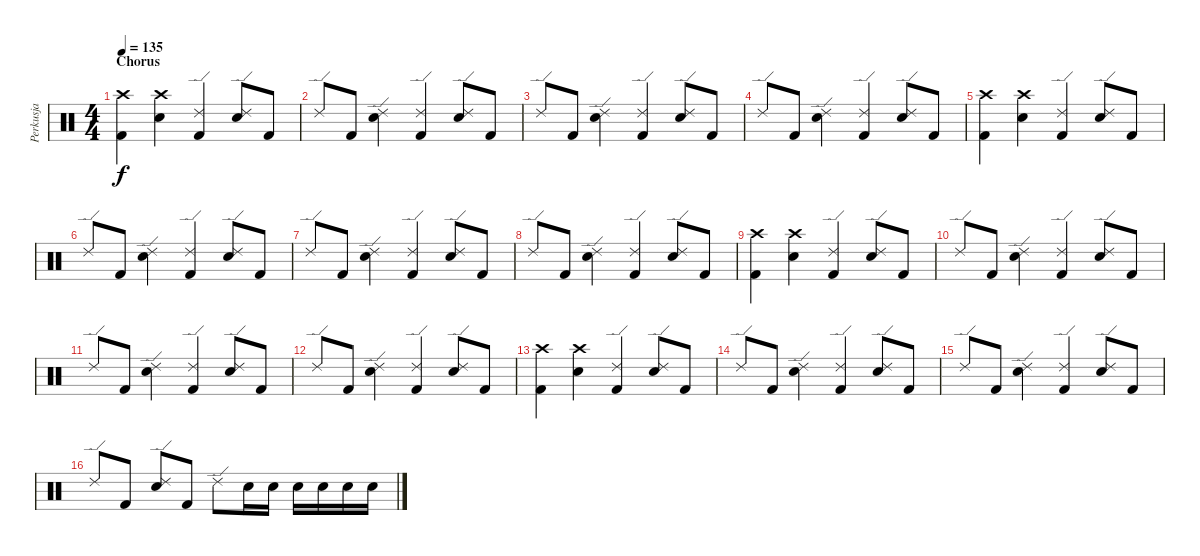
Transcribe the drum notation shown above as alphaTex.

\track ("Perkusja" "Perkusja") {instrument percussion}
\staff {score}
\articulation defaults
\ts (4 4)
\section ("" "Chorus")
\tempo 135
\clef neutral
\ks c
("Kick (hit) 2" "Crash high (hit)").4{dy f} ("Electric Snare (hit)" "Crash high (hit)").4 ("Kick (hit) 2" "Ride (edge) 2").4 ("Electric Snare (hit)" "Ride (edge) 2").8 "Kick (hit) 2".8 |
"Ride (edge) 2".8 "Kick (hit) 2".8 ("Electric Snare (hit)" "Ride (edge) 2").4 ("Kick (hit) 2" "Ride (edge) 2").4 ("Electric Snare (hit)" "Ride (edge) 2").8 "Kick (hit) 2".8 |
"Ride (edge) 2".8 "Kick (hit) 2".8 ("Electric Snare (hit)" "Ride (edge) 2").4 ("Kick (hit) 2" "Ride (edge) 2").4 ("Electric Snare (hit)" "Ride (edge) 2").8 "Kick (hit) 2".8 |
"Ride (edge) 2".8 "Kick (hit) 2".8 ("Electric Snare (hit)" "Ride (edge) 2").4 ("Kick (hit) 2" "Ride (edge) 2").4 ("Electric Snare (hit)" "Ride (edge) 2").8 "Kick (hit) 2".8 |
("Kick (hit) 2" "Crash high (hit)").4 ("Electric Snare (hit)" "Crash high (hit)").4 ("Kick (hit) 2" "Ride (edge) 2").4 ("Electric Snare (hit)" "Ride (edge) 2").8 "Kick (hit) 2".8 |
"Ride (edge) 2".8 "Kick (hit) 2".8 ("Electric Snare (hit)" "Ride (edge) 2").4 ("Kick (hit) 2" "Ride (edge) 2").4 ("Electric Snare (hit)" "Ride (edge) 2").8 "Kick (hit) 2".8 |
"Ride (edge) 2".8 "Kick (hit) 2".8 ("Electric Snare (hit)" "Ride (edge) 2").4 ("Kick (hit) 2" "Ride (edge) 2").4 ("Electric Snare (hit)" "Ride (edge) 2").8 "Kick (hit) 2".8 |
"Ride (edge) 2".8 "Kick (hit) 2".8 ("Electric Snare (hit)" "Ride (edge) 2").4 ("Kick (hit) 2" "Ride (edge) 2").4 ("Electric Snare (hit)" "Ride (edge) 2").8 "Kick (hit) 2".8 |
("Kick (hit) 2" "Crash high (hit)").4 ("Electric Snare (hit)" "Crash high (hit)").4 ("Kick (hit) 2" "Ride (edge) 2").4 ("Electric Snare (hit)" "Ride (edge) 2").8 "Kick (hit) 2".8 |
"Ride (edge) 2".8 "Kick (hit) 2".8 ("Electric Snare (hit)" "Ride (edge) 2").4 ("Kick (hit) 2" "Ride (edge) 2").4 ("Electric Snare (hit)" "Ride (edge) 2").8 "Kick (hit) 2".8 |
"Ride (edge) 2".8 "Kick (hit) 2".8 ("Electric Snare (hit)" "Ride (edge) 2").4 ("Kick (hit) 2" "Ride (edge) 2").4 ("Electric Snare (hit)" "Ride (edge) 2").8 "Kick (hit) 2".8 |
"Ride (edge) 2".8 "Kick (hit) 2".8 ("Electric Snare (hit)" "Ride (edge) 2").4 ("Kick (hit) 2" "Ride (edge) 2").4 ("Electric Snare (hit)" "Ride (edge) 2").8 "Kick (hit) 2".8 |
("Kick (hit) 2" "Crash high (hit)").4 ("Electric Snare (hit)" "Crash high (hit)").4 ("Kick (hit) 2" "Ride (edge) 2").4 ("Electric Snare (hit)" "Ride (edge) 2").8 "Kick (hit) 2".8 |
"Ride (edge) 2".8 "Kick (hit) 2".8 ("Electric Snare (hit)" "Ride (edge) 2").4 ("Kick (hit) 2" "Ride (edge) 2").4 ("Electric Snare (hit)" "Ride (edge) 2").8 "Kick (hit) 2".8 |
"Ride (edge) 2".8 "Kick (hit) 2".8 ("Electric Snare (hit)" "Ride (edge) 2").4 ("Kick (hit) 2" "Ride (edge) 2").4 ("Electric Snare (hit)" "Ride (edge) 2").8 "Kick (hit) 2".8 |
"Ride (edge) 2".8 "Kick (hit) 2".8 ("Electric Snare (hit)" "Ride (edge) 2").8 "Kick (hit) 2".8 "Ride (edge) 2".8 "Electric Snare (hit)".16 "Electric Snare (hit)".16 "Electric Snare (hit)".16 "Electric Snare (hit)".16 "Electric Snare (hit)".16 "Electric Snare (hit)".16
